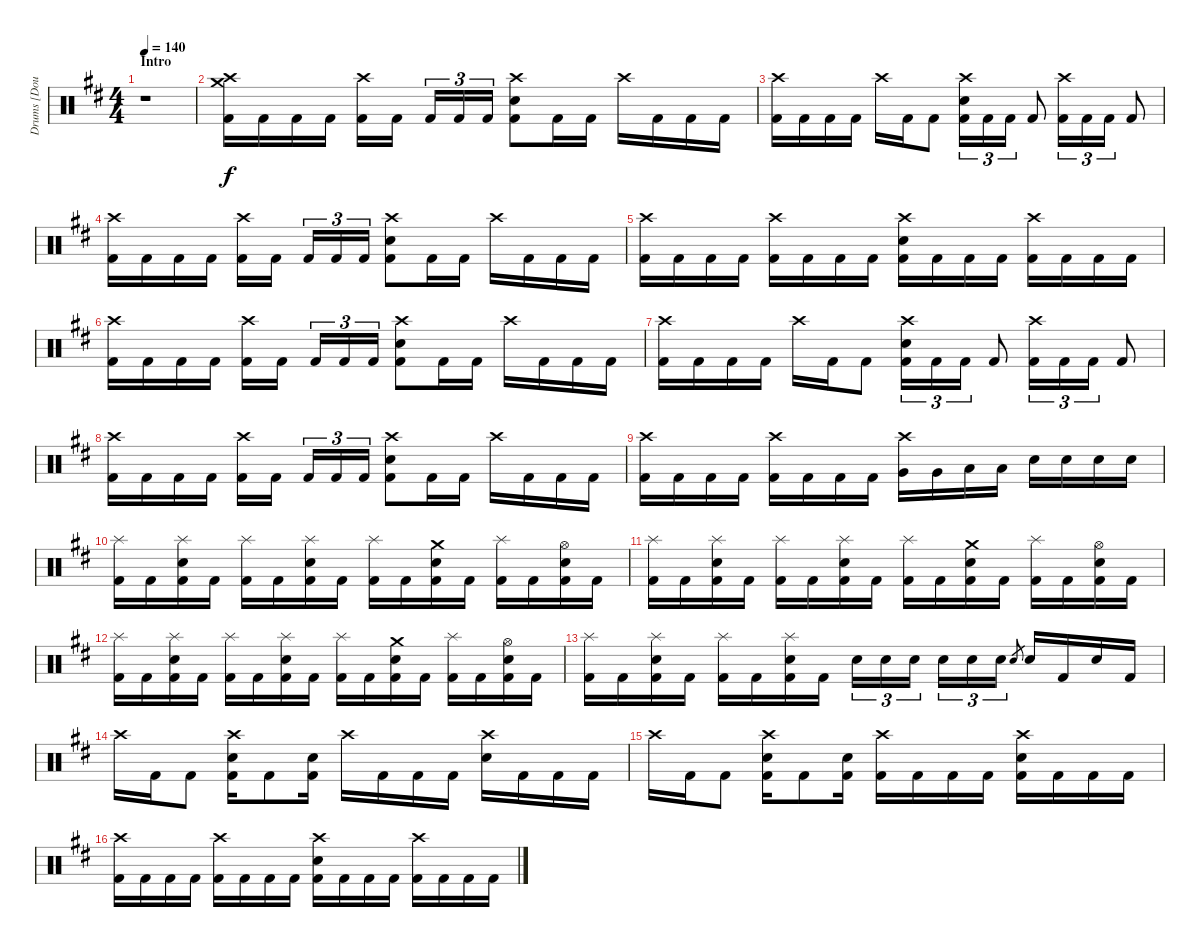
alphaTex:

\track ("Drums [Doug Anderson]" "Drums [Dou") {instrument percussion}
\staff {score}
\articulation defaults
\ts (4 4)
\section ("" "Intro")
\tempo 140
\clef neutral
\ks bminor
r.1{dy f} |
("Crash medium (hit)" "Crash high (hit)" "Kick (hit) 2").16 "Kick (hit) 2".16 "Kick (hit) 2".16 "Kick (hit) 2".16 ("Crash high (hit)" "Kick (hit) 2").16 "Kick (hit) 2".16 "Kick (hit) 2".16{tu (3 2)} "Kick (hit) 2".16{tu (3 2)} "Kick (hit) 2".16{tu (3 2)} ("Crash high (hit)" "Electric Snare (hit)" "Kick (hit) 2").8 "Kick (hit) 2".16 "Kick (hit) 2".16 "Crash high (hit)".16 "Kick (hit) 2".16 "Kick (hit) 2".16 "Kick (hit) 2".16 |
("Crash high (hit)" "Kick (hit) 2").16 "Kick (hit) 2".16 "Kick (hit) 2".16 "Kick (hit) 2".16 "Crash high (hit)".16 "Kick (hit) 2".16 "Kick (hit) 2".8 ("Crash high (hit)" "Electric Snare (hit)" "Kick (hit) 2").16{tu (3 2)} "Kick (hit) 2".16{tu (3 2)} "Kick (hit) 2".16{tu (3 2)} "Kick (hit) 2".8 ("Crash high (hit)" "Kick (hit) 2").16{tu (3 2)} "Kick (hit) 2".16{tu (3 2)} "Kick (hit) 2".16{tu (3 2)} "Kick (hit) 2".8 |
("Crash high (hit)" "Kick (hit) 2").16 "Kick (hit) 2".16 "Kick (hit) 2".16 "Kick (hit) 2".16 ("Crash high (hit)" "Kick (hit) 2").16 "Kick (hit) 2".16 "Kick (hit) 2".16{tu (3 2)} "Kick (hit) 2".16{tu (3 2)} "Kick (hit) 2".16{tu (3 2)} ("Crash high (hit)" "Electric Snare (hit)" "Kick (hit) 2").8 "Kick (hit) 2".16 "Kick (hit) 2".16 "Crash high (hit)".16 "Kick (hit) 2".16 "Kick (hit) 2".16 "Kick (hit) 2".16 |
("Crash high (hit)" "Kick (hit) 2").16 "Kick (hit) 2".16 "Kick (hit) 2".16 "Kick (hit) 2".16 ("Crash high (hit)" "Kick (hit) 2").16 "Kick (hit) 2".16 "Kick (hit) 2".16 "Kick (hit) 2".16 ("Crash high (hit)" "Electric Snare (hit)" "Kick (hit) 2").16 "Kick (hit) 2".16 "Kick (hit) 2".16 "Kick (hit) 2".16 ("Crash high (hit)" "Kick (hit) 2").16 "Kick (hit) 2".16 "Kick (hit) 2".16 "Kick (hit) 2".16 |
("Crash high (hit)" "Kick (hit) 2").16 "Kick (hit) 2".16 "Kick (hit) 2".16 "Kick (hit) 2".16 ("Crash high (hit)" "Kick (hit) 2").16 "Kick (hit) 2".16 "Kick (hit) 2".16{tu (3 2)} "Kick (hit) 2".16{tu (3 2)} "Kick (hit) 2".16{tu (3 2)} ("Crash high (hit)" "Electric Snare (hit)" "Kick (hit) 2").8 "Kick (hit) 2".16 "Kick (hit) 2".16 "Crash high (hit)".16 "Kick (hit) 2".16 "Kick (hit) 2".16 "Kick (hit) 2".16 |
("Crash high (hit)" "Kick (hit) 2").16 "Kick (hit) 2".16 "Kick (hit) 2".16 "Kick (hit) 2".16 "Crash high (hit)".16 "Kick (hit) 2".16 "Kick (hit) 2".8 ("Crash high (hit)" "Electric Snare (hit)" "Kick (hit) 2").16{tu (3 2)} "Kick (hit) 2".16{tu (3 2)} "Kick (hit) 2".16{tu (3 2)} "Kick (hit) 2".8 ("Crash high (hit)" "Kick (hit) 2").16{tu (3 2)} "Kick (hit) 2".16{tu (3 2)} "Kick (hit) 2".16{tu (3 2)} "Kick (hit) 2".8 |
("Crash high (hit)" "Kick (hit) 2").16 "Kick (hit) 2".16 "Kick (hit) 2".16 "Kick (hit) 2".16 ("Crash high (hit)" "Kick (hit) 2").16 "Kick (hit) 2".16 "Kick (hit) 2".16{tu (3 2)} "Kick (hit) 2".16{tu (3 2)} "Kick (hit) 2".16{tu (3 2)} ("Crash high (hit)" "Electric Snare (hit)" "Kick (hit) 2").8 "Kick (hit) 2".16 "Kick (hit) 2".16 "Crash high (hit)".16 "Kick (hit) 2".16 "Kick (hit) 2".16 "Kick (hit) 2".16 |
("Crash high (hit)" "Kick (hit) 2").16 "Kick (hit) 2".16 "Kick (hit) 2".16 "Kick (hit) 2".16 ("Crash high (hit)" "Kick (hit) 2").16 "Kick (hit) 2".16 "Kick (hit) 2".16 "Kick (hit) 2".16 ("Crash high (hit)" "Very Low Tom (hit)").16 "Very Low Tom (hit)".16 "Low Tom (hit)".16 "Low Tom (hit)".16 "Electric Snare (hit)".16 "Electric Snare (hit)".16 "Electric Snare (hit)".16 "Electric Snare (hit)".16 |
("Splash (hit)" "Kick (hit) 2").16 "Kick (hit) 2".16 ("Splash (hit)" "Electric Snare (hit)" "Kick (hit) 2").16 "Kick (hit) 2".16 ("Splash (hit)" "Kick (hit) 2").16 "Kick (hit) 2".16 ("Splash (hit)" "Electric Snare (hit)" "Kick (hit) 2").16 "Kick (hit) 2".16 ("Splash (hit)" "Kick (hit) 2").16 "Kick (hit) 2".16 ("Crash medium (hit)" "Electric Snare (hit)" "Kick (hit) 2").16 "Kick (hit) 2".16 ("Splash (hit)" "Kick (hit) 2").16 "Kick (hit) 2".16 ("Hi-Hat (open)" "Electric Snare (hit)" "Kick (hit) 2").16 "Kick (hit) 2".16 |
("Splash (hit)" "Kick (hit) 2").16 "Kick (hit) 2".16 ("Splash (hit)" "Electric Snare (hit)" "Kick (hit) 2").16 "Kick (hit) 2".16 ("Splash (hit)" "Kick (hit) 2").16 "Kick (hit) 2".16 ("Splash (hit)" "Electric Snare (hit)" "Kick (hit) 2").16 "Kick (hit) 2".16 ("Splash (hit)" "Kick (hit) 2").16 "Kick (hit) 2".16 ("Crash medium (hit)" "Electric Snare (hit)" "Kick (hit) 2").16 "Kick (hit) 2".16 ("Splash (hit)" "Kick (hit) 2").16 "Kick (hit) 2".16 ("Hi-Hat (open)" "Electric Snare (hit)" "Kick (hit) 2").16 "Kick (hit) 2".16 |
("Splash (hit)" "Kick (hit) 2").16 "Kick (hit) 2".16 ("Splash (hit)" "Electric Snare (hit)" "Kick (hit) 2").16 "Kick (hit) 2".16 ("Splash (hit)" "Kick (hit) 2").16 "Kick (hit) 2".16 ("Splash (hit)" "Electric Snare (hit)" "Kick (hit) 2").16 "Kick (hit) 2".16 ("Splash (hit)" "Kick (hit) 2").16 "Kick (hit) 2".16 ("Crash medium (hit)" "Electric Snare (hit)" "Kick (hit) 2").16 "Kick (hit) 2".16 ("Splash (hit)" "Kick (hit) 2").16 "Kick (hit) 2".16 ("Hi-Hat (open)" "Electric Snare (hit)" "Kick (hit) 2").16 "Kick (hit) 2".16 |
("Splash (hit)" "Kick (hit) 2").16 "Kick (hit) 2".16 ("Splash (hit)" "Electric Snare (hit)" "Kick (hit) 2").16 "Kick (hit) 2".16 ("Splash (hit)" "Kick (hit) 2").16 "Kick (hit) 2".16 ("Splash (hit)" "Electric Snare (hit)" "Kick (hit) 2").16 "Kick (hit) 2".16 "Electric Snare (hit)".16{tu (3 2)} "Electric Snare (hit)".16{tu (3 2)} "Electric Snare (hit)".16{tu (3 2)} "Electric Snare (hit)".16{tu (3 2)} "Electric Snare (hit)".16{tu (3 2)} "Electric Snare (hit)".16{tu (3 2)} "Electric Snare (hit)".8{gr} "Electric Snare (hit)".16 "Kick (hit) 2".16 "Electric Snare (hit)".16 "Kick (hit) 2".16 |
"Crash high (hit)".16 "Kick (hit) 2".16 "Kick (hit) 2".8 ("Crash high (hit)" "Electric Snare (hit)" "Kick (hit) 2").16 "Kick (hit) 2".8 ("Electric Snare (hit)" "Kick (hit) 2").16 "Crash high (hit)".16 "Kick (hit) 2".16 "Kick (hit) 2".16 "Kick (hit) 2".16 ("Crash high (hit)" "Electric Snare (hit)").16 "Kick (hit) 2".16 "Kick (hit) 2".16 "Kick (hit) 2".16 |
"Crash high (hit)".16 "Kick (hit) 2".16 "Kick (hit) 2".8 ("Crash high (hit)" "Electric Snare (hit)" "Kick (hit) 2").16 "Kick (hit) 2".8 ("Electric Snare (hit)" "Kick (hit) 2").16 ("Crash high (hit)" "Kick (hit) 2").16 "Kick (hit) 2".16 "Kick (hit) 2".16 "Kick (hit) 2".16 ("Crash high (hit)" "Electric Snare (hit)" "Kick (hit) 2").16 "Kick (hit) 2".16 "Kick (hit) 2".16 "Kick (hit) 2".16 |
("Crash high (hit)" "Kick (hit) 2").16 "Kick (hit) 2".16 "Kick (hit) 2".16 "Kick (hit) 2".16 ("Crash high (hit)" "Kick (hit) 2").16 "Kick (hit) 2".16 "Kick (hit) 2".16 "Kick (hit) 2".16 ("Crash high (hit)" "Electric Snare (hit)" "Kick (hit) 2").16 "Kick (hit) 2".16 "Kick (hit) 2".16 "Kick (hit) 2".16 ("Crash high (hit)" "Kick (hit) 2").16 "Kick (hit) 2".16 "Kick (hit) 2".16 "Kick (hit) 2".16
